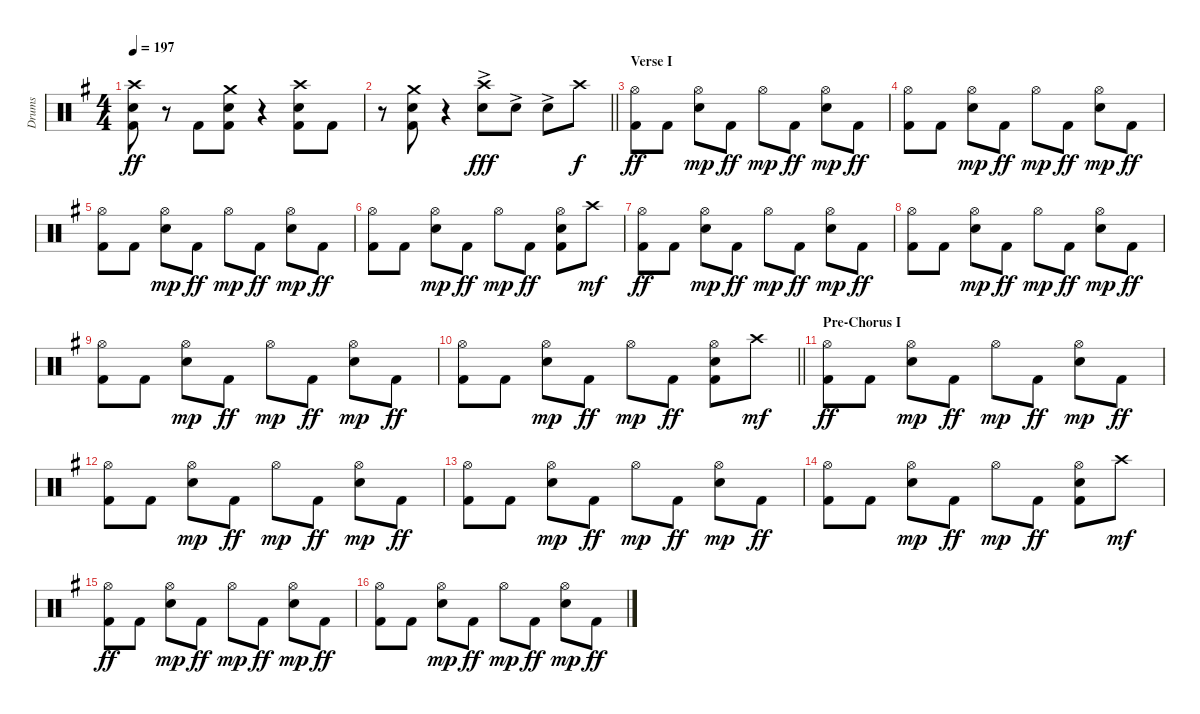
\track ("Drums" "Drums") {instrument percussion}
\staff {score}
\articulation defaults
\ts (4 4)
\tempo 197
\clef neutral
\ks g
("Crash high (hit)" "Snare (hit) 2" "Kick (hit) 2").8{dy ff} r.8 "Kick (hit) 2".8 ("Crash medium (hit)" "Snare (hit) 2" "Kick (hit) 2").8 r.4 ("Crash high (hit)" "Snare (hit) 2" "Kick (hit) 2").8 "Kick (hit) 2".8 |
\barLineRight lightlight
r.8 ("Crash medium (hit)" "Snare (hit) 2" "Kick (hit) 2").8 r.4 ("Crash high (hit)" "Snare (hit) 2"{ac}).8{dy fff} "Snare (hit) 2"{ac}.8 "Snare (hit) 2"{ac}.8 "Crash high (hit)".8{dy f} |
\section ("" "Verse I")
("Hi-Hat (open)" "Kick (hit) 2").8{dy ff} "Kick (hit) 2".8 ("Hi-Hat (open)" "Snare (hit) 2").8{dy mp} "Kick (hit) 2".8{dy ff} "Hi-Hat (open)".8{dy mp} "Kick (hit) 2".8{dy ff} ("Hi-Hat (open)" "Snare (hit) 2").8{dy mp} "Kick (hit) 2".8{dy ff} |
("Hi-Hat (open)" "Kick (hit) 2").8 "Kick (hit) 2".8 ("Hi-Hat (open)" "Snare (hit) 2").8{dy mp} "Kick (hit) 2".8{dy ff} "Hi-Hat (open)".8{dy mp} "Kick (hit) 2".8{dy ff} ("Hi-Hat (open)" "Snare (hit) 2").8{dy mp} "Kick (hit) 2".8{dy ff} |
("Hi-Hat (open)" "Kick (hit) 2").8 "Kick (hit) 2".8 ("Hi-Hat (open)" "Snare (hit) 2").8{dy mp} "Kick (hit) 2".8{dy ff} "Hi-Hat (open)".8{dy mp} "Kick (hit) 2".8{dy ff} ("Hi-Hat (open)" "Snare (hit) 2").8{dy mp} "Kick (hit) 2".8{dy ff} |
("Hi-Hat (open)" "Kick (hit) 2").8 "Kick (hit) 2".8 ("Hi-Hat (open)" "Snare (hit) 2").8{dy mp} "Kick (hit) 2".8{dy ff} "Hi-Hat (open)".8{dy mp} "Kick (hit) 2".8{dy ff} ("Hi-Hat (open)" "Snare (hit) 2" "Kick (hit) 2").8 "Crash high (hit)".8{dy mf} |
("Hi-Hat (open)" "Kick (hit) 2").8{dy ff} "Kick (hit) 2".8 ("Hi-Hat (open)" "Snare (hit) 2").8{dy mp} "Kick (hit) 2".8{dy ff} "Hi-Hat (open)".8{dy mp} "Kick (hit) 2".8{dy ff} ("Hi-Hat (open)" "Snare (hit) 2").8{dy mp} "Kick (hit) 2".8{dy ff} |
("Hi-Hat (open)" "Kick (hit) 2").8 "Kick (hit) 2".8 ("Hi-Hat (open)" "Snare (hit) 2").8{dy mp} "Kick (hit) 2".8{dy ff} "Hi-Hat (open)".8{dy mp} "Kick (hit) 2".8{dy ff} ("Hi-Hat (open)" "Snare (hit) 2").8{dy mp} "Kick (hit) 2".8{dy ff} |
("Hi-Hat (open)" "Kick (hit) 2").8 "Kick (hit) 2".8 ("Hi-Hat (open)" "Snare (hit) 2").8{dy mp} "Kick (hit) 2".8{dy ff} "Hi-Hat (open)".8{dy mp} "Kick (hit) 2".8{dy ff} ("Hi-Hat (open)" "Snare (hit) 2").8{dy mp} "Kick (hit) 2".8{dy ff} |
\barLineRight lightlight
("Hi-Hat (open)" "Kick (hit) 2").8 "Kick (hit) 2".8 ("Hi-Hat (open)" "Snare (hit) 2").8{dy mp} "Kick (hit) 2".8{dy ff} "Hi-Hat (open)".8{dy mp} "Kick (hit) 2".8{dy ff} ("Hi-Hat (open)" "Snare (hit) 2" "Kick (hit) 2").8 "Crash high (hit)".8{dy mf} |
\section ("" "Pre-Chorus I")
("Hi-Hat (open)" "Kick (hit) 2").8{dy ff} "Kick (hit) 2".8 ("Hi-Hat (open)" "Snare (hit) 2").8{dy mp} "Kick (hit) 2".8{dy ff} "Hi-Hat (open)".8{dy mp} "Kick (hit) 2".8{dy ff} ("Hi-Hat (open)" "Snare (hit) 2").8{dy mp} "Kick (hit) 2".8{dy ff} |
("Hi-Hat (open)" "Kick (hit) 2").8 "Kick (hit) 2".8 ("Hi-Hat (open)" "Snare (hit) 2").8{dy mp} "Kick (hit) 2".8{dy ff} "Hi-Hat (open)".8{dy mp} "Kick (hit) 2".8{dy ff} ("Hi-Hat (open)" "Snare (hit) 2").8{dy mp} "Kick (hit) 2".8{dy ff} |
("Hi-Hat (open)" "Kick (hit) 2").8 "Kick (hit) 2".8 ("Hi-Hat (open)" "Snare (hit) 2").8{dy mp} "Kick (hit) 2".8{dy ff} "Hi-Hat (open)".8{dy mp} "Kick (hit) 2".8{dy ff} ("Hi-Hat (open)" "Snare (hit) 2").8{dy mp} "Kick (hit) 2".8{dy ff} |
("Hi-Hat (open)" "Kick (hit) 2").8 "Kick (hit) 2".8 ("Hi-Hat (open)" "Snare (hit) 2").8{dy mp} "Kick (hit) 2".8{dy ff} "Hi-Hat (open)".8{dy mp} "Kick (hit) 2".8{dy ff} ("Hi-Hat (open)" "Snare (hit) 2" "Kick (hit) 2").8 "Crash high (hit)".8{dy mf} |
("Hi-Hat (open)" "Kick (hit) 2").8{dy ff} "Kick (hit) 2".8 ("Hi-Hat (open)" "Snare (hit) 2").8{dy mp} "Kick (hit) 2".8{dy ff} "Hi-Hat (open)".8{dy mp} "Kick (hit) 2".8{dy ff} ("Hi-Hat (open)" "Snare (hit) 2").8{dy mp} "Kick (hit) 2".8{dy ff} |
("Hi-Hat (open)" "Kick (hit) 2").8 "Kick (hit) 2".8 ("Hi-Hat (open)" "Snare (hit) 2").8{dy mp} "Kick (hit) 2".8{dy ff} "Hi-Hat (open)".8{dy mp} "Kick (hit) 2".8{dy ff} ("Hi-Hat (open)" "Snare (hit) 2").8{dy mp} "Kick (hit) 2".8{dy ff}
